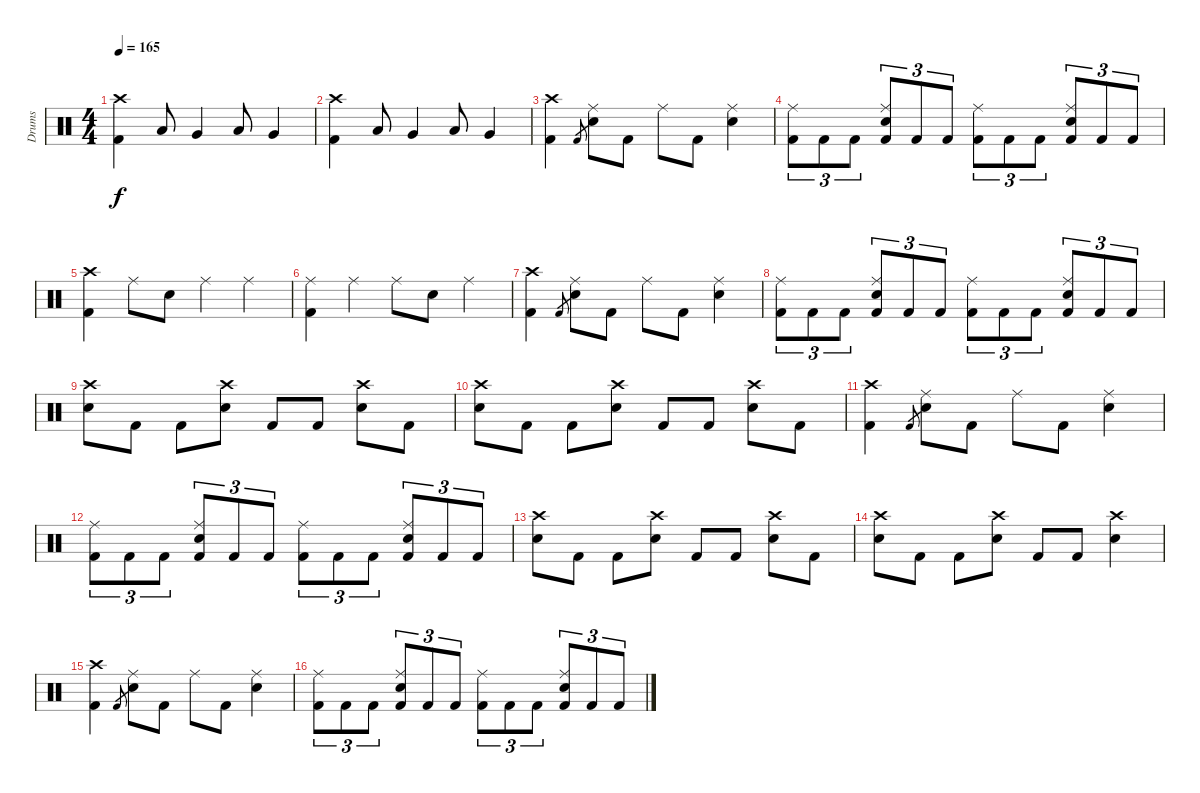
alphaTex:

\track ("Drums" "Drums") {instrument percussion}
\staff {score}
\articulation defaults
\ts (4 4)
\tempo 165
\clef neutral
\ks c
("Crash high (hit)" "Kick (hit) 2").4{dy f} "Low Tom (hit)".8 "Very Low Tom (hit)".4 "Low Floor Tom (hit)".8 "Very Low Tom (hit)".4 |
("Crash high (hit)" "Kick (hit) 2").4 "Low Tom (hit)".8 "Very Low Tom (hit)".4 "Low Floor Tom (hit)".8 "Very Low Tom (hit)".4 |
("Crash high (hit)" "Kick (hit) 2").4 "Kick (hit) 2".8{gr} ("Ride (middle)" "Electric Snare (hit)").8 "Kick (hit) 2".8 "Ride (middle)".8 "Kick (hit) 2".8 ("Ride (middle)" "Electric Snare (hit)").4 |
("Ride (middle)" "Kick (hit) 2").8{tu (3 2)} "Kick (hit) 2".8{tu (3 2)} "Kick (hit) 2".8{tu (3 2)} ("Ride (middle)" "Electric Snare (hit)" "Kick (hit) 2").8{tu (3 2)} "Kick (hit) 2".8{tu (3 2)} "Kick (hit) 2".8{tu (3 2)} ("Ride (middle)" "Kick (hit) 2").8{tu (3 2)} "Kick (hit) 2".8{tu (3 2)} "Kick (hit) 2".8{tu (3 2)} ("Ride (middle)" "Electric Snare (hit)" "Kick (hit) 2").8{tu (3 2)} "Kick (hit) 2".8{tu (3 2)} "Kick (hit) 2".8{tu (3 2)} |
("Crash high (hit)" "Kick (hit) 2").4 "Ride (middle)".8 "Electric Snare (hit)".8 "Ride (middle)".4 "Ride (middle)".4 |
("Ride (middle)" "Kick (hit) 2").4 "Ride (middle)".4 "Ride (middle)".8 "Electric Snare (hit)".8 "Ride (middle)".4 |
("Crash high (hit)" "Kick (hit) 2").4 "Kick (hit) 2".8{gr} ("Ride (middle)" "Electric Snare (hit)").8 "Kick (hit) 2".8 "Ride (middle)".8 "Kick (hit) 2".8 ("Ride (middle)" "Electric Snare (hit)").4 |
("Ride (middle)" "Kick (hit) 2").8{tu (3 2)} "Kick (hit) 2".8{tu (3 2)} "Kick (hit) 2".8{tu (3 2)} ("Ride (middle)" "Electric Snare (hit)" "Kick (hit) 2").8{tu (3 2)} "Kick (hit) 2".8{tu (3 2)} "Kick (hit) 2".8{tu (3 2)} ("Ride (middle)" "Kick (hit) 2").8{tu (3 2)} "Kick (hit) 2".8{tu (3 2)} "Kick (hit) 2".8{tu (3 2)} ("Ride (middle)" "Electric Snare (hit)" "Kick (hit) 2").8{tu (3 2)} "Kick (hit) 2".8{tu (3 2)} "Kick (hit) 2".8{tu (3 2)} |
("Crash high (hit)" "Electric Snare (hit)").8 "Kick (hit) 2".8 "Kick (hit) 2".8 ("Crash high (hit)" "Electric Snare (hit)").8 "Kick (hit) 2".8 "Kick (hit) 2".8 ("Crash high (hit)" "Electric Snare (hit)").8 "Kick (hit) 2".8 |
("Crash high (hit)" "Electric Snare (hit)").8 "Kick (hit) 2".8 "Kick (hit) 2".8 ("Crash high (hit)" "Electric Snare (hit)").8 "Kick (hit) 2".8 "Kick (hit) 2".8 ("Crash high (hit)" "Electric Snare (hit)").8 "Kick (hit) 2".8 |
("Crash high (hit)" "Kick (hit) 2").4 "Kick (hit) 2".8{gr} ("Ride (middle)" "Electric Snare (hit)").8 "Kick (hit) 2".8 "Ride (middle)".8 "Kick (hit) 2".8 ("Ride (middle)" "Electric Snare (hit)").4 |
("Ride (middle)" "Kick (hit) 2").8{tu (3 2)} "Kick (hit) 2".8{tu (3 2)} "Kick (hit) 2".8{tu (3 2)} ("Ride (middle)" "Electric Snare (hit)" "Kick (hit) 2").8{tu (3 2)} "Kick (hit) 2".8{tu (3 2)} "Kick (hit) 2".8{tu (3 2)} ("Ride (middle)" "Kick (hit) 2").8{tu (3 2)} "Kick (hit) 2".8{tu (3 2)} "Kick (hit) 2".8{tu (3 2)} ("Ride (middle)" "Electric Snare (hit)" "Kick (hit) 2").8{tu (3 2)} "Kick (hit) 2".8{tu (3 2)} "Kick (hit) 2".8{tu (3 2)} |
("Crash high (hit)" "Electric Snare (hit)").8 "Kick (hit) 2".8 "Kick (hit) 2".8 ("Crash high (hit)" "Electric Snare (hit)").8 "Kick (hit) 2".8 "Kick (hit) 2".8 ("Crash high (hit)" "Electric Snare (hit)").8 "Kick (hit) 2".8 |
("Crash high (hit)" "Electric Snare (hit)").8 "Kick (hit) 2".8 "Kick (hit) 2".8 ("Crash high (hit)" "Electric Snare (hit)").8 "Kick (hit) 2".8 "Kick (hit) 2".8 ("Crash high (hit)" "Electric Snare (hit)").4 |
("Crash high (hit)" "Kick (hit) 2").4 "Kick (hit) 2".8{gr} ("Ride (middle)" "Electric Snare (hit)").8 "Kick (hit) 2".8 "Ride (middle)".8 "Kick (hit) 2".8 ("Ride (middle)" "Electric Snare (hit)").4 |
("Ride (middle)" "Kick (hit) 2").8{tu (3 2)} "Kick (hit) 2".8{tu (3 2)} "Kick (hit) 2".8{tu (3 2)} ("Ride (middle)" "Electric Snare (hit)" "Kick (hit) 2").8{tu (3 2)} "Kick (hit) 2".8{tu (3 2)} "Kick (hit) 2".8{tu (3 2)} ("Ride (middle)" "Kick (hit) 2").8{tu (3 2)} "Kick (hit) 2".8{tu (3 2)} "Kick (hit) 2".8{tu (3 2)} ("Ride (middle)" "Electric Snare (hit)" "Kick (hit) 2").8{tu (3 2)} "Kick (hit) 2".8{tu (3 2)} "Kick (hit) 2".8{tu (3 2)}
